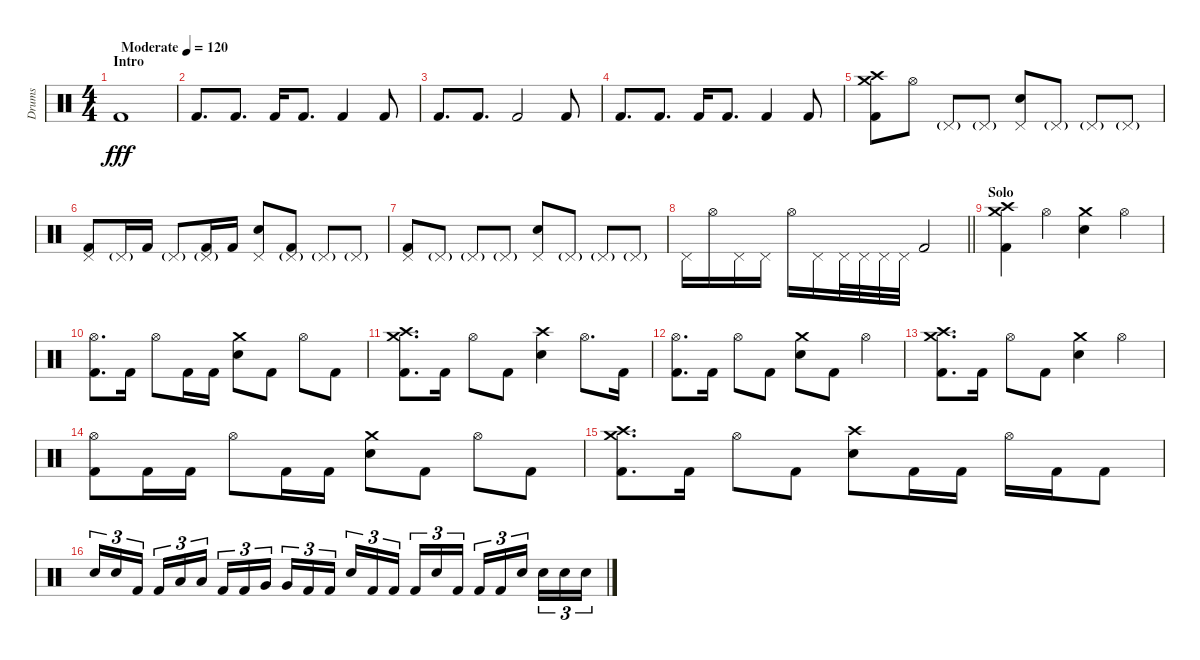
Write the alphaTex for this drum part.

\track ("Drums" "Drums") {instrument percussion}
\staff {score}
\articulation defaults
\ts (4 4)
\section ("" "Intro")
\tempo (120 "Moderate")
\clef neutral
\ks c "Kick (hit) 2".1{dy fff volume 7}
|
"Kick (hit) 2".8{d} "Kick (hit) 2".8{d} "Kick (hit) 2".16 "Kick (hit) 2".8{d} "Kick (hit) 2".4 "Kick (hit) 2".8 |
"Kick (hit) 2".8{d} "Kick (hit) 2".8{d} "Kick (hit) 2".2 "Kick (hit) 2".8 |
"Kick (hit) 2".8{d} "Kick (hit) 2".8{d} "Kick (hit) 2".16 "Kick (hit) 2".8{d} "Kick (hit) 2".4 "Kick (hit) 2".8 |
("Crash medium (hit)" "Crash high (hit)" "Kick (hit) 2").8 "Hi-Hat (open)".8 "Pedal Hi-Hat (hit)"{g}.8 "Pedal Hi-Hat (hit)"{g}.8 ("Pedal Hi-Hat (hit)" "Snare (hit) 2").8 "Pedal Hi-Hat (hit)"{g}.8 "Pedal Hi-Hat (hit)"{g}.8 "Pedal Hi-Hat (hit)"{g}.8 |
("Pedal Hi-Hat (hit)" "Kick (hit) 2").8 "Pedal Hi-Hat (hit)"{g}.16 "Kick (hit) 2".16 "Pedal Hi-Hat (hit)"{g}.8 ("Pedal Hi-Hat (hit)"{g} "Kick (hit) 2").16 "Kick (hit) 2".16 ("Pedal Hi-Hat (hit)" "Snare (hit) 2").8 ("Pedal Hi-Hat (hit)"{g} "Kick (hit) 2").8 "Pedal Hi-Hat (hit)"{g}.8 "Pedal Hi-Hat (hit)"{g}.8 |
("Pedal Hi-Hat (hit)" "Kick (hit) 2").8 "Pedal Hi-Hat (hit)"{g}.8 "Pedal Hi-Hat (hit)"{g}.8 "Pedal Hi-Hat (hit)"{g}.8 ("Pedal Hi-Hat (hit)" "Snare (hit) 2").8 "Pedal Hi-Hat (hit)"{g}.8 "Pedal Hi-Hat (hit)"{g}.8 "Pedal Hi-Hat (hit)"{g}.8 |
\barLineRight lightlight "Pedal Hi-Hat (hit)".16 "Hi-Hat (open)".16 "Pedal Hi-Hat (hit)".16 "Pedal Hi-Hat (hit)".16 "Hi-Hat (open)".16 "Pedal Hi-Hat (hit)".16 "Pedal Hi-Hat (hit)".32 "Pedal Hi-Hat (hit)".32 "Pedal Hi-Hat (hit)".32 "Pedal Hi-Hat (hit)".32 "Kick (hit) 2".2
|
\section ("" "Solo")
("Crash medium (hit)" "Crash high (hit)" "Kick (hit) 2").4{volume 16} "Hi-Hat (open)".4 ("Crash medium (hit)" "Electric Snare (hit)").4 "Hi-Hat (open)".4 |
("Hi-Hat (open)" "Kick (hit) 2").8{d} "Kick (hit) 2".16 "Hi-Hat (open)".8 "Kick (hit) 2".16 "Kick (hit) 2".16 ("Crash medium (hit)" "Electric Snare (hit)").8 "Kick (hit) 2".8 "Hi-Hat (open)".8 "Kick (hit) 2".8 |
("Crash medium (hit)" "Crash high (hit)" "Kick (hit) 2").8{d} "Kick (hit) 2".16 "Hi-Hat (open)".8 "Kick (hit) 2".8 ("Crash high (hit)" "Electric Snare (hit)").4 "Hi-Hat (open)".8{d} "Kick (hit) 2".16 |
("Hi-Hat (open)" "Kick (hit) 2").8{d} "Kick (hit) 2".16 "Hi-Hat (open)".8 "Kick (hit) 2".8 ("Crash medium (hit)" "Electric Snare (hit)").8 "Kick (hit) 2".8 "Hi-Hat (open)".4 |
("Crash medium (hit)" "Crash high (hit)" "Kick (hit) 2").8{d} "Kick (hit) 2".16 "Hi-Hat (open)".8 "Kick (hit) 2".8 ("Crash medium (hit)" "Electric Snare (hit)").4 "Hi-Hat (open)".4 |
("Hi-Hat (open)" "Kick (hit) 2").8 "Kick (hit) 2".16 "Kick (hit) 2".16 "Hi-Hat (open)".8 "Kick (hit) 2".16 "Kick (hit) 2".16 ("Crash medium (hit)" "Electric Snare (hit)").8 "Kick (hit) 2".8 "Hi-Hat (open)".8 "Kick (hit) 2".8 |
("Crash medium (hit)" "Crash high (hit)" "Kick (hit) 2").8{d} "Kick (hit) 2".16 "Hi-Hat (open)".8 "Kick (hit) 2".8 ("Crash high (hit)" "Electric Snare (hit)").8 "Kick (hit) 2".16 "Kick (hit) 2".16 "Hi-Hat (open)".16 "Kick (hit) 2".16 "Kick (hit) 2".8 |
"Electric Snare (hit)".16{tu (3 2)} "Electric Snare (hit)".16{tu (3 2)} "Kick (hit) 2".16{tu (3 2) beam splitsecondary} "Kick (hit) 2".16{tu (3 2)} "Low Tom (hit)".16{tu (3 2)} "Low Tom (hit)".16{tu (3 2)} "Kick (hit) 2".16{tu (3 2)} "Kick (hit) 2".16{tu (3 2)} "Very Low Tom (hit)".16{tu (3 2) beam splitsecondary} "Very Low Tom (hit)".16{tu (3 2)} "Kick (hit) 2".16{tu (3 2)} "Kick (hit) 2".16{tu (3 2)} "Electric Snare (hit)".16{tu (3 2)} "Kick (hit) 2".16{tu (3 2)} "Kick (hit) 2".16{tu (3 2) beam splitsecondary} "Kick (hit) 2".16{tu (3 2)} "Electric Snare (hit)".16{tu (3 2)} "Kick (hit) 2".16{tu (3 2)} "Kick (hit) 2".16{tu (3 2)} "Kick (hit) 2".16{tu (3 2)} "Electric Snare (hit)".16{tu (3 2) beam splitsecondary} "Electric Snare (hit)".16{tu (3 2)} "Electric Snare (hit)".16{tu (3 2)} "Electric Snare (hit)".16{tu (3 2)}
